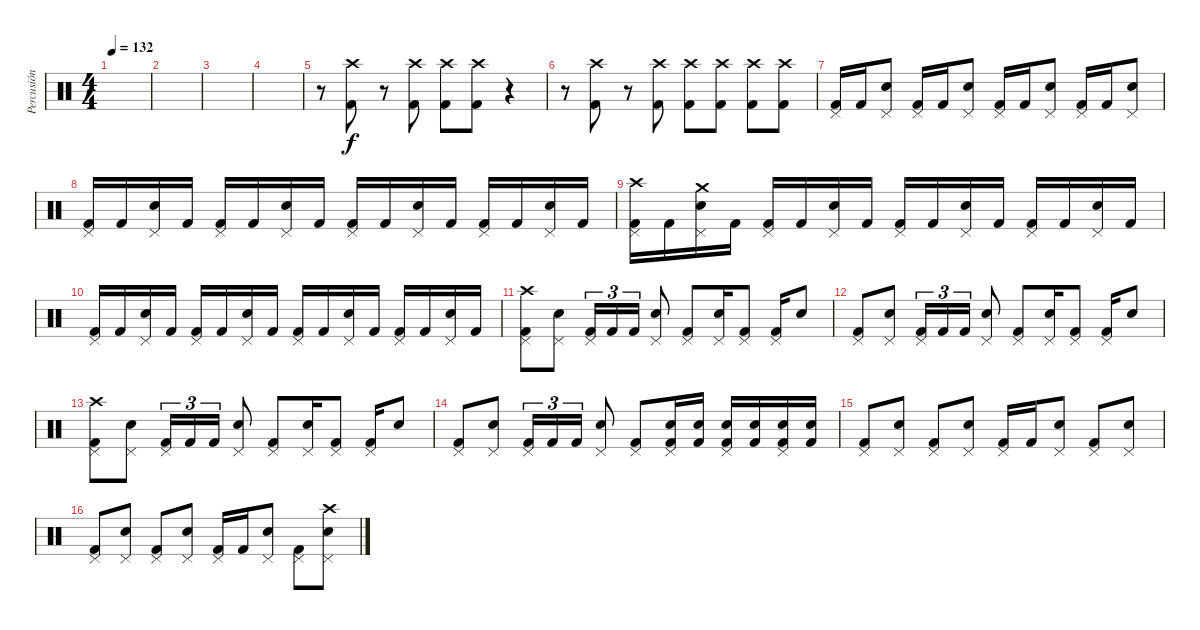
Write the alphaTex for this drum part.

\track ("Percusión" "Percusión") {instrument percussion}
\staff {score}
\articulation defaults
\ts (4 4)
\tempo 132
\clef neutral
\ks c
|
|
|
|
r.8 ("Crash high (hit)" "Kick (hit) 2").8 r.8 ("Crash high (hit)" "Kick (hit) 2").8 ("Crash high (hit)" "Kick (hit) 2").8 ("Crash high (hit)" "Kick (hit) 2").8 r.4 |
r.8 ("Crash high (hit)" "Kick (hit) 2").8 r.8 ("Crash high (hit)" "Kick (hit) 2").8 ("Crash high (hit)" "Kick (hit) 2").8 ("Crash high (hit)" "Kick (hit) 2").8 ("Crash high (hit)" "Kick (hit) 2").8 ("Crash high (hit)" "Kick (hit) 2").8 |
("Pedal Hi-Hat (hit)" "Kick (hit) 2").16{dy f} "Kick (hit) 2".16 ("Pedal Hi-Hat (hit)" "Electric Snare (hit)").8 ("Pedal Hi-Hat (hit)" "Kick (hit) 2").16 "Kick (hit) 2".16 ("Pedal Hi-Hat (hit)" "Electric Snare (hit)").8 ("Pedal Hi-Hat (hit)" "Kick (hit) 2").16 "Kick (hit) 2".16 ("Pedal Hi-Hat (hit)" "Electric Snare (hit)").8 ("Pedal Hi-Hat (hit)" "Kick (hit) 2").16 "Kick (hit) 2".16 ("Pedal Hi-Hat (hit)" "Electric Snare (hit)").8 |
("Pedal Hi-Hat (hit)" "Kick (hit) 2").16 "Kick (hit) 2".16 ("Pedal Hi-Hat (hit)" "Electric Snare (hit)").16 "Kick (hit) 2".16 ("Pedal Hi-Hat (hit)" "Kick (hit) 2").16 "Kick (hit) 2".16 ("Pedal Hi-Hat (hit)" "Electric Snare (hit)").16 "Kick (hit) 2".16 ("Pedal Hi-Hat (hit)" "Kick (hit) 2").16 "Kick (hit) 2".16 ("Pedal Hi-Hat (hit)" "Electric Snare (hit)").16 "Kick (hit) 2".16 ("Pedal Hi-Hat (hit)" "Kick (hit) 2").16 "Kick (hit) 2".16 ("Pedal Hi-Hat (hit)" "Electric Snare (hit)").16 "Kick (hit) 2".16 |
("Pedal Hi-Hat (hit)" "Crash high (hit)" "Kick (hit) 2").16 "Kick (hit) 2".16 ("Pedal Hi-Hat (hit)" "Crash medium (hit)" "Electric Snare (hit)").16 "Kick (hit) 2".16 ("Pedal Hi-Hat (hit)" "Kick (hit) 2").16 "Kick (hit) 2".16 ("Pedal Hi-Hat (hit)" "Electric Snare (hit)").16 "Kick (hit) 2".16 ("Pedal Hi-Hat (hit)" "Kick (hit) 2").16 "Kick (hit) 2".16 ("Pedal Hi-Hat (hit)" "Electric Snare (hit)").16 "Kick (hit) 2".16 ("Pedal Hi-Hat (hit)" "Kick (hit) 2").16 "Kick (hit) 2".16 ("Pedal Hi-Hat (hit)" "Electric Snare (hit)").16 "Kick (hit) 2".16 |
("Pedal Hi-Hat (hit)" "Kick (hit) 2").16 "Kick (hit) 2".16 ("Pedal Hi-Hat (hit)" "Electric Snare (hit)").16 "Kick (hit) 2".16 ("Pedal Hi-Hat (hit)" "Kick (hit) 2").16 "Kick (hit) 2".16 ("Pedal Hi-Hat (hit)" "Electric Snare (hit)").16 "Kick (hit) 2".16 ("Pedal Hi-Hat (hit)" "Kick (hit) 2").16 "Kick (hit) 2".16 ("Pedal Hi-Hat (hit)" "Electric Snare (hit)").16 "Kick (hit) 2".16 ("Pedal Hi-Hat (hit)" "Kick (hit) 2").16 "Kick (hit) 2".16 ("Pedal Hi-Hat (hit)" "Electric Snare (hit)").16 "Kick (hit) 2".16 |
("Pedal Hi-Hat (hit)" "Crash high (hit)" "Kick (hit) 2").8 ("Pedal Hi-Hat (hit)" "Electric Snare (hit)").8 ("Pedal Hi-Hat (hit)" "Kick (hit) 2").16{tu (3 2)} "Kick (hit) 2".16{tu (3 2)} "Kick (hit) 2".16{tu (3 2)} ("Pedal Hi-Hat (hit)" "Electric Snare (hit)").8 ("Pedal Hi-Hat (hit)" "Kick (hit) 2").8 ("Pedal Hi-Hat (hit)" "Electric Snare (hit)").16 ("Pedal Hi-Hat (hit)" "Kick (hit) 2").8 ("Pedal Hi-Hat (hit)" "Kick (hit) 2").16 "Electric Snare (hit)".8 |
("Pedal Hi-Hat (hit)" "Kick (hit) 2").8 ("Pedal Hi-Hat (hit)" "Electric Snare (hit)").8 ("Pedal Hi-Hat (hit)" "Kick (hit) 2").16{tu (3 2)} "Kick (hit) 2".16{tu (3 2)} "Kick (hit) 2".16{tu (3 2)} ("Pedal Hi-Hat (hit)" "Electric Snare (hit)").8 ("Pedal Hi-Hat (hit)" "Kick (hit) 2").8 ("Pedal Hi-Hat (hit)" "Electric Snare (hit)").16 ("Pedal Hi-Hat (hit)" "Kick (hit) 2").8 ("Pedal Hi-Hat (hit)" "Kick (hit) 2").16 "Electric Snare (hit)".8 |
("Pedal Hi-Hat (hit)" "Crash high (hit)" "Kick (hit) 2").8 ("Pedal Hi-Hat (hit)" "Electric Snare (hit)").8 ("Pedal Hi-Hat (hit)" "Kick (hit) 2").16{tu (3 2)} "Kick (hit) 2".16{tu (3 2)} "Kick (hit) 2".16{tu (3 2)} ("Pedal Hi-Hat (hit)" "Electric Snare (hit)").8 ("Pedal Hi-Hat (hit)" "Kick (hit) 2").8 ("Pedal Hi-Hat (hit)" "Electric Snare (hit)").16 ("Pedal Hi-Hat (hit)" "Kick (hit) 2").8 ("Pedal Hi-Hat (hit)" "Kick (hit) 2").16 "Electric Snare (hit)".8 |
("Pedal Hi-Hat (hit)" "Kick (hit) 2").8 ("Pedal Hi-Hat (hit)" "Electric Snare (hit)").8 ("Pedal Hi-Hat (hit)" "Kick (hit) 2").16{tu (3 2)} "Kick (hit) 2".16{tu (3 2)} "Kick (hit) 2".16{tu (3 2)} ("Pedal Hi-Hat (hit)" "Electric Snare (hit)").8 ("Pedal Hi-Hat (hit)" "Kick (hit) 2").8 ("Pedal Hi-Hat (hit)" "Electric Snare (hit)" "Kick (hit) 2").16 ("Electric Snare (hit)" "Kick (hit) 2").16 ("Pedal Hi-Hat (hit)" "Electric Snare (hit)" "Kick (hit) 2").16 ("Electric Snare (hit)" "Kick (hit) 2").16 ("Pedal Hi-Hat (hit)" "Electric Snare (hit)" "Kick (hit) 2").16 ("Electric Snare (hit)" "Kick (hit) 2").16 |
("Pedal Hi-Hat (hit)" "Kick (hit) 2").8 ("Pedal Hi-Hat (hit)" "Electric Snare (hit)").8 ("Pedal Hi-Hat (hit)" "Kick (hit) 2").8 ("Pedal Hi-Hat (hit)" "Electric Snare (hit)").8 ("Pedal Hi-Hat (hit)" "Kick (hit) 2").16 "Kick (hit) 2".16 ("Pedal Hi-Hat (hit)" "Electric Snare (hit)").8 ("Pedal Hi-Hat (hit)" "Kick (hit) 2").8 ("Pedal Hi-Hat (hit)" "Electric Snare (hit)").8 |
("Pedal Hi-Hat (hit)" "Kick (hit) 2").8 ("Pedal Hi-Hat (hit)" "Electric Snare (hit)").8 ("Pedal Hi-Hat (hit)" "Kick (hit) 2").8 ("Pedal Hi-Hat (hit)" "Electric Snare (hit)").8 ("Pedal Hi-Hat (hit)" "Kick (hit) 2").16 "Kick (hit) 2".16 ("Pedal Hi-Hat (hit)" "Electric Snare (hit)").8 ("Pedal Hi-Hat (hit)" "Kick (hit) 2").8 ("Pedal Hi-Hat (hit)" "Crash high (hit)" "Electric Snare (hit)").8
